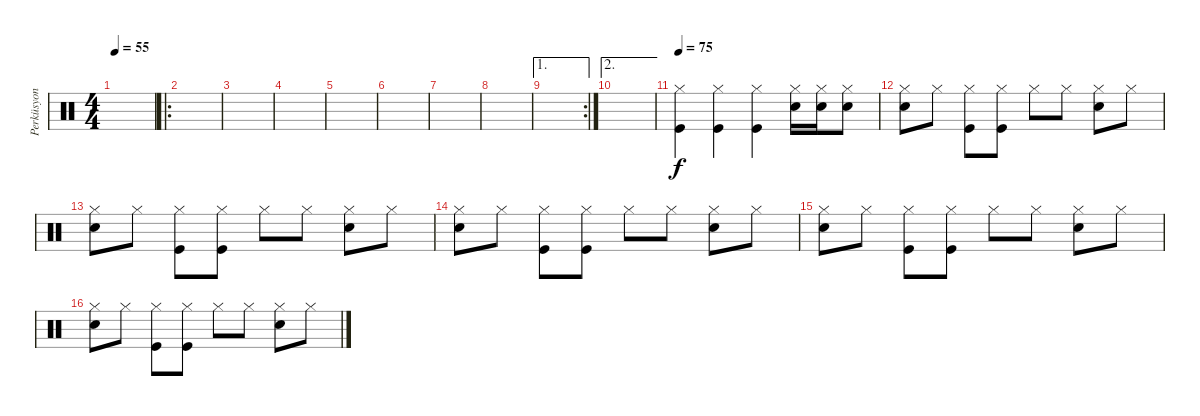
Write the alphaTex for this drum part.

\track ("Perküsyon" "Perküsyon") {instrument percussion}
\staff {score}
\articulation defaults
\ts (4 4)
\tempo 55
\clef neutral
\ks c
|
\ro
|
|
|
|
|
|
|
\ae 1
\rc 2
|
\ae 2
|
\tempo 75
("Kick (hit)" "Hi-Hat (closed)").4 ("Kick (hit)" "Hi-Hat (closed)").4 ("Kick (hit)" "Hi-Hat (closed)").4 ("Snare (hit) 2" "Hi-Hat (closed)").16 ("Snare (hit) 2" "Hi-Hat (closed)").16 ("Snare (hit) 2" "Hi-Hat (closed)").8 |
("Snare (hit) 2" "Hi-Hat (closed)").8 "Hi-Hat (closed)".8 ("Kick (hit)" "Hi-Hat (closed)").8 ("Kick (hit)" "Hi-Hat (closed)").8 "Hi-Hat (closed)".8 "Hi-Hat (closed)".8 ("Snare (hit) 2" "Hi-Hat (closed)").8 "Hi-Hat (closed)".8 |
("Snare (hit) 2" "Hi-Hat (closed)").8 "Hi-Hat (closed)".8 ("Kick (hit)" "Hi-Hat (closed)").8 ("Kick (hit)" "Hi-Hat (closed)").8 "Hi-Hat (closed)".8 "Hi-Hat (closed)".8 ("Snare (hit) 2" "Hi-Hat (closed)").8 "Hi-Hat (closed)".8 |
("Snare (hit) 2" "Hi-Hat (closed)").8 "Hi-Hat (closed)".8 ("Kick (hit)" "Hi-Hat (closed)").8 ("Kick (hit)" "Hi-Hat (closed)").8 "Hi-Hat (closed)".8 "Hi-Hat (closed)".8 ("Snare (hit) 2" "Hi-Hat (closed)").8 "Hi-Hat (closed)".8 |
("Snare (hit) 2" "Hi-Hat (closed)").8 "Hi-Hat (closed)".8 ("Kick (hit)" "Hi-Hat (closed)").8 ("Kick (hit)" "Hi-Hat (closed)").8 "Hi-Hat (closed)".8 "Hi-Hat (closed)".8 ("Snare (hit) 2" "Hi-Hat (closed)").8 "Hi-Hat (closed)".8 |
("Snare (hit) 2" "Hi-Hat (closed)").8 "Hi-Hat (closed)".8 ("Kick (hit)" "Hi-Hat (closed)").8 ("Kick (hit)" "Hi-Hat (closed)").8 "Hi-Hat (closed)".8 "Hi-Hat (closed)".8 ("Snare (hit) 2" "Hi-Hat (closed)").8 "Hi-Hat (closed)".8
